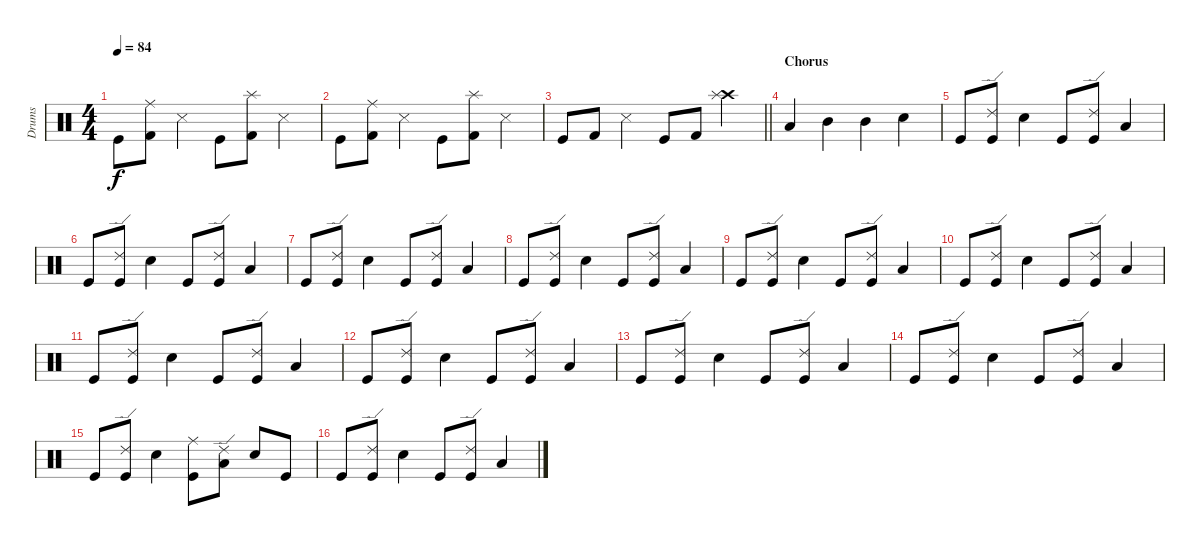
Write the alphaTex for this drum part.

\track ("Drums" "Drums") {instrument percussion}
\staff {score}
\articulation defaults
\ts (4 4)
\tempo 84
\clef neutral
\ks c "Kick (hit)".8{dy f}
("Kick (hit) 2" "Ride (middle)").8 "Snare (side stick) 3".4 "Kick (hit)".8 ("Kick (hit) 2" "Splash (hit)").8 "Snare (side stick) 3".4 |
"Kick (hit)".8 ("Kick (hit) 2" "Ride (middle)").8 "Snare (side stick) 3".4 "Kick (hit)".8 ("Kick (hit) 2" "Splash (hit)").8 "Snare (side stick) 3".4 |
\barLineRight lightlight "Kick (hit)".8 "Kick (hit) 2".8 "Snare (side stick) 3".4 "Kick (hit)".8 "Kick (hit) 2".8
("Crash high (hit)" "Splash (hit)").4 |
\section ("" "Chorus")
"Low Tom (hit)".4 "Mid Tom (hit)".4 "Mid Tom (hit)".4 "Snare (hit) 2".4 |
"Kick (hit)".8 ("Kick (hit)" "Ride (edge) 2").8 "Snare (hit) 2".4 "Kick (hit)".8 ("Kick (hit)" "Ride (edge) 2").8 "Low Tom (hit)".4 |
"Kick (hit)".8 ("Kick (hit)" "Ride (edge) 2").8 "Snare (hit) 2".4 "Kick (hit)".8 ("Kick (hit)" "Ride (edge) 2").8 "Low Tom (hit)".4 |
"Kick (hit)".8 ("Kick (hit)" "Ride (edge) 2").8 "Snare (hit) 2".4 "Kick (hit)".8 ("Kick (hit)" "Ride (edge) 2").8 "Low Tom (hit)".4 |
"Kick (hit)".8 ("Kick (hit)" "Ride (edge) 2").8 "Snare (hit) 2".4 "Kick (hit)".8 ("Kick (hit)" "Ride (edge) 2").8 "Low Tom (hit)".4 |
"Kick (hit)".8 ("Kick (hit)" "Ride (edge) 2").8 "Snare (hit) 2".4 "Kick (hit)".8 ("Kick (hit)" "Ride (edge) 2").8 "Low Tom (hit)".4 |
"Kick (hit)".8 ("Kick (hit)" "Ride (edge) 2").8 "Snare (hit) 2".4 "Kick (hit)".8 ("Kick (hit)" "Ride (edge) 2").8 "Low Tom (hit)".4 |
"Kick (hit)".8 ("Kick (hit)" "Ride (edge) 2").8 "Snare (hit) 2".4 "Kick (hit)".8 ("Kick (hit)" "Ride (edge) 2").8 "Low Tom (hit)".4 |
"Kick (hit)".8 ("Kick (hit)" "Ride (edge) 2").8 "Snare (hit) 2".4 "Kick (hit)".8 ("Kick (hit)" "Ride (edge) 2").8 "Low Tom (hit)".4 |
"Kick (hit)".8 ("Kick (hit)" "Ride (edge) 2").8 "Snare (hit) 2".4 "Kick (hit)".8 ("Kick (hit)" "Ride (edge) 2").8 "Low Tom (hit)".4 |
"Kick (hit)".8 ("Kick (hit)" "Ride (edge) 2").8 "Snare (hit) 2".4 "Kick (hit)".8 ("Kick (hit)" "Ride (edge) 2").8 "Low Tom (hit)".4 |
"Kick (hit)".8 ("Kick (hit)" "Ride (edge) 2").8 "Snare (hit) 2".4 ("Kick (hit)" "Ride (middle)").8 ("Low Tom (hit)" "Ride (edge) 2").8 "Snare (hit) 2".8 "Kick (hit)".8 |
"Kick (hit)".8 ("Kick (hit)" "Ride (edge) 2").8 "Snare (hit) 2".4 "Kick (hit)".8 ("Kick (hit)" "Ride (edge) 2").8 "Low Tom (hit)".4
